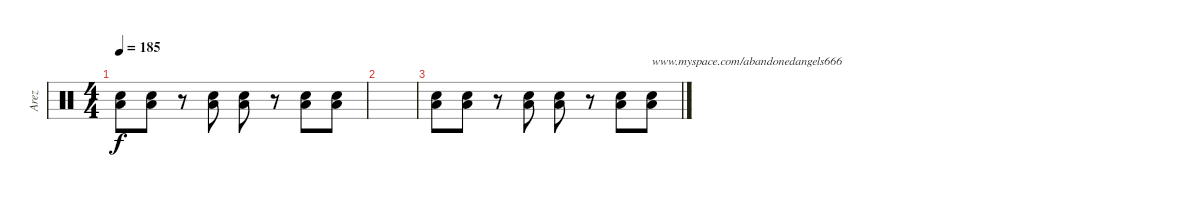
\track ("Arez" "Arez") {instrument percussion}
\staff {score}
\articulation defaults
\ts (4 4)
\tempo 185
\clef neutral
\ks c
("Electric Snare (hit)" "Low Floor Tom (hit)").8{dy f} ("Electric Snare (hit)" "Low Floor Tom (hit)").8 r.8 ("Electric Snare (hit)" "Low Floor Tom (hit)").8 ("Electric Snare (hit)" "Low Floor Tom (hit)").8 r.8 ("Electric Snare (hit)" "Low Floor Tom (hit)").8 ("Electric Snare (hit)" "Low Floor Tom (hit)").8 |
|
("Electric Snare (hit)" "Low Floor Tom (hit)").8 ("Electric Snare (hit)" "Low Floor Tom (hit)").8 r.8 ("Electric Snare (hit)" "Low Floor Tom (hit)").8 ("Electric Snare (hit)" "Low Floor Tom (hit)").8 r.8 ("Electric Snare (hit)" "Low Floor Tom (hit)").8 ("Electric Snare (hit)" "Low Floor Tom (hit)").8{txt "www.myspace.com/abandonedangels666"}
